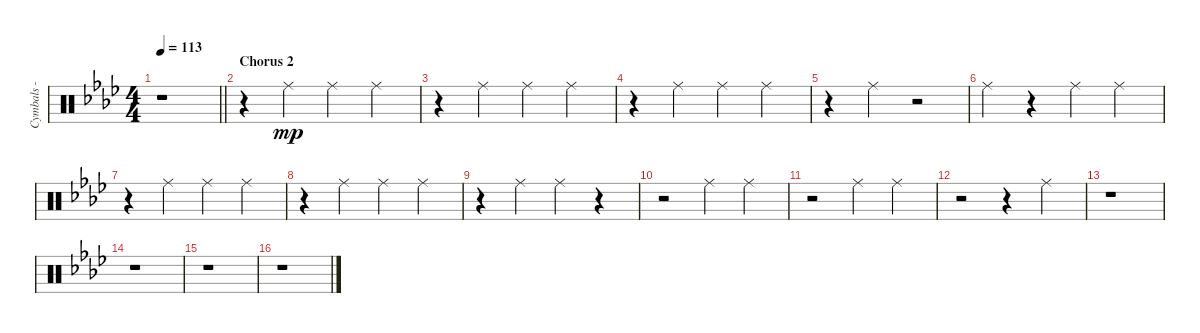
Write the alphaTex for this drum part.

\track ("Cymbals - ride" "Cymbals - ") {instrument percussion}
\staff {score}
\articulation defaults
\ts (4 4)
\tempo 113
\clef neutral
\barLineRight lightlight
\ks fminor
r.1{dy mp} |
\section ("" "Chorus 2")
r.4 "Ride (middle)".4 "Ride (middle)".4 "Ride (middle)".4 |
r.4 "Ride (middle)".4 "Ride (middle)".4 "Ride (middle)".4 |
r.4 "Ride (middle)".4 "Ride (middle)".4 "Ride (middle)".4 |
r.4 "Ride (middle)".4 r.2 |
"Ride (middle)".4 r.4 "Ride (middle)".4 "Ride (middle)".4 |
r.4 "Ride (middle)".4 "Ride (middle)".4 "Ride (middle)".4 |
r.4 "Ride (middle)".4 "Ride (middle)".4 "Ride (middle)".4 |
r.4 "Ride (middle)".4 "Ride (middle)".4 r.4 |
r.2 "Ride (middle)".4 "Ride (middle)".4 |
r.2 "Ride (middle)".4 "Ride (middle)".4 |
r.2 r.4 "Ride (middle)".4 |
r.1 |
r.1 |
r.1 |
r.1
